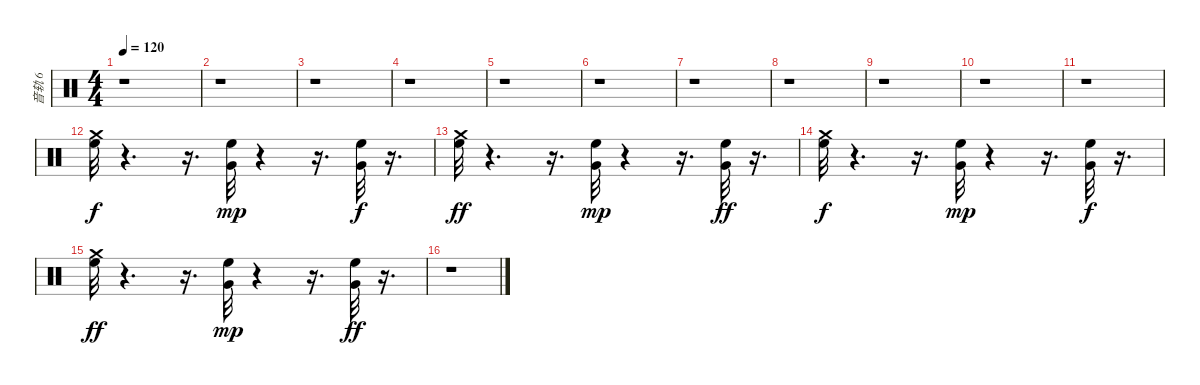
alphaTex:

\track ("音轨 6" "音轨 6") {instrument percussion}
\staff {score}
\articulation defaults
\ts (4 4)
\tempo 120
\clef neutral
\ks c
r.1{dy f} |
r.1 |
r.1 |
r.1 |
r.1 |
r.1 |
r.1 |
r.1 |
r.1 |
r.1 |
r.1 |
("Crash medium (hit)" "High Floor Tom (hit)").32 r.4{d} r.16{d} ("Very Low Tom (hit)" "High Floor Tom (hit)").32{dy mp} r.4 r.16{d} ("High Floor Tom (hit)" "Very Low Tom (hit)").32{dy f} r.16{d} |
("High Floor Tom (hit)" "Crash medium (hit)").32{dy ff} r.4{d} r.16{d} ("High Floor Tom (hit)" "Very Low Tom (hit)").32{dy mp} r.4 r.16{d} ("High Floor Tom (hit)" "Very Low Tom (hit)").32{dy ff} r.16{d} |
("Crash medium (hit)" "High Floor Tom (hit)").32{dy f} r.4{d} r.16{d} ("Very Low Tom (hit)" "High Floor Tom (hit)").32{dy mp} r.4 r.16{d} ("High Floor Tom (hit)" "Very Low Tom (hit)").32{dy f} r.16{d} |
("High Floor Tom (hit)" "Crash medium (hit)").32{dy ff} r.4{d} r.16{d} ("Very Low Tom (hit)" "High Floor Tom (hit)").32{dy mp} r.4 r.16{d} ("High Floor Tom (hit)" "Very Low Tom (hit)").32{dy ff} r.16{d} |
r.1
